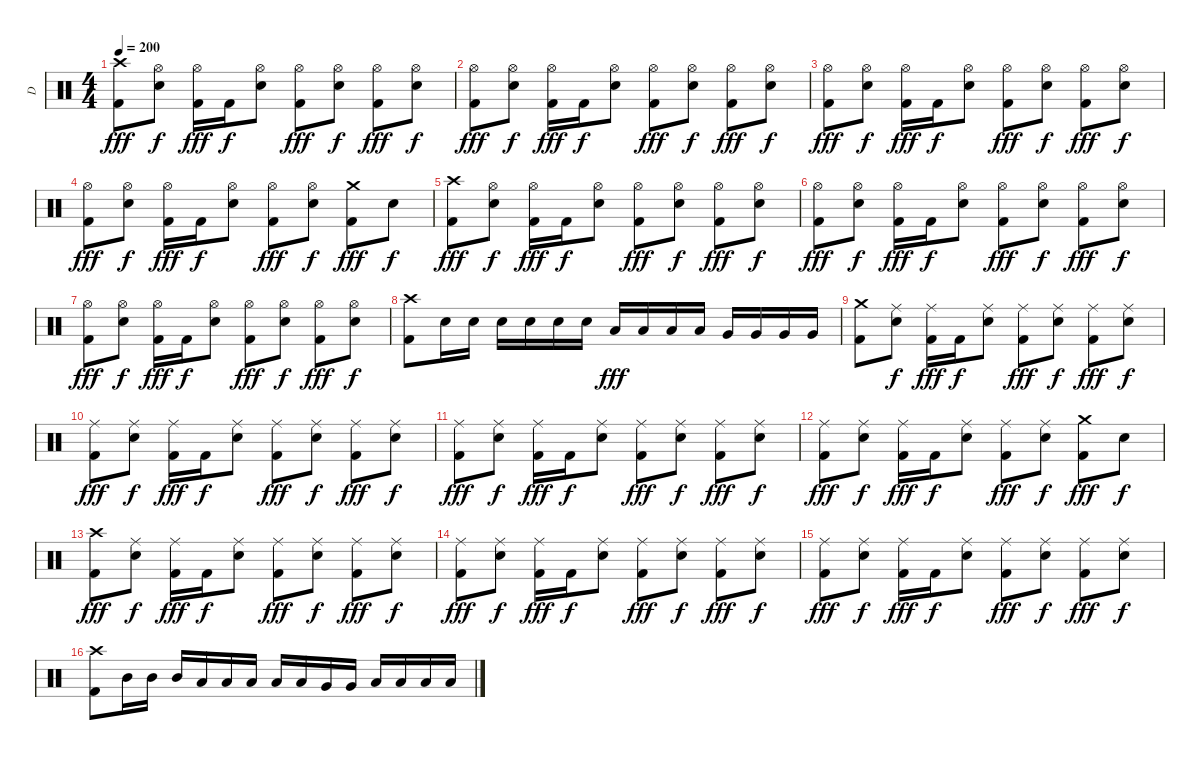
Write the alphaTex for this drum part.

\track ("D" "D") {instrument percussion}
\staff {score}
\articulation defaults
\ts (4 4)
\tempo 200
\clef neutral
\ks c
("Crash high (hit)" "Kick (hit) 2").8{dy fff} ("Hi-Hat (open)" "Electric Snare (hit)").8{dy f} ("Hi-Hat (open)" "Kick (hit) 2").16{dy fff} "Kick (hit) 2".16{dy f} ("Hi-Hat (open)" "Electric Snare (hit)").8 ("Hi-Hat (open)" "Kick (hit) 2").8{dy fff} ("Hi-Hat (open)" "Electric Snare (hit)").8{dy f} ("Hi-Hat (open)" "Kick (hit) 2").8{dy fff} ("Hi-Hat (open)" "Electric Snare (hit)").8{dy f} |
("Hi-Hat (open)" "Kick (hit) 2").8{dy fff} ("Hi-Hat (open)" "Electric Snare (hit)").8{dy f} ("Hi-Hat (open)" "Kick (hit) 2").16{dy fff} "Kick (hit) 2".16{dy f} ("Hi-Hat (open)" "Electric Snare (hit)").8 ("Hi-Hat (open)" "Kick (hit) 2").8{dy fff} ("Hi-Hat (open)" "Electric Snare (hit)").8{dy f} ("Hi-Hat (open)" "Kick (hit) 2").8{dy fff} ("Hi-Hat (open)" "Electric Snare (hit)").8{dy f} |
("Hi-Hat (open)" "Kick (hit) 2").8{dy fff} ("Hi-Hat (open)" "Electric Snare (hit)").8{dy f} ("Hi-Hat (open)" "Kick (hit) 2").16{dy fff} "Kick (hit) 2".16{dy f} ("Hi-Hat (open)" "Electric Snare (hit)").8 ("Hi-Hat (open)" "Kick (hit) 2").8{dy fff} ("Hi-Hat (open)" "Electric Snare (hit)").8{dy f} ("Hi-Hat (open)" "Kick (hit) 2").8{dy fff} ("Hi-Hat (open)" "Electric Snare (hit)").8{dy f} |
("Hi-Hat (open)" "Kick (hit) 2").8{dy fff} ("Hi-Hat (open)" "Electric Snare (hit)").8{dy f} ("Hi-Hat (open)" "Kick (hit) 2").16{dy fff} "Kick (hit) 2".16{dy f} ("Hi-Hat (open)" "Electric Snare (hit)").8 ("Hi-Hat (open)" "Kick (hit) 2").8{dy fff} ("Hi-Hat (open)" "Electric Snare (hit)").8{dy f} ("Crash medium (hit)" "Kick (hit) 2").8{dy fff} "Electric Snare (hit)".8{dy f} |
("Crash high (hit)" "Kick (hit) 2").8{dy fff} ("Hi-Hat (open)" "Electric Snare (hit)").8{dy f} ("Hi-Hat (open)" "Kick (hit) 2").16{dy fff} "Kick (hit) 2".16{dy f} ("Hi-Hat (open)" "Electric Snare (hit)").8 ("Hi-Hat (open)" "Kick (hit) 2").8{dy fff} ("Hi-Hat (open)" "Electric Snare (hit)").8{dy f} ("Hi-Hat (open)" "Kick (hit) 2").8{dy fff} ("Hi-Hat (open)" "Electric Snare (hit)").8{dy f} |
("Hi-Hat (open)" "Kick (hit) 2").8{dy fff} ("Hi-Hat (open)" "Electric Snare (hit)").8{dy f} ("Hi-Hat (open)" "Kick (hit) 2").16{dy fff} "Kick (hit) 2".16{dy f} ("Hi-Hat (open)" "Electric Snare (hit)").8 ("Hi-Hat (open)" "Kick (hit) 2").8{dy fff} ("Hi-Hat (open)" "Electric Snare (hit)").8{dy f} ("Hi-Hat (open)" "Kick (hit) 2").8{dy fff} ("Hi-Hat (open)" "Electric Snare (hit)").8{dy f} |
("Hi-Hat (open)" "Kick (hit) 2").8{dy fff} ("Hi-Hat (open)" "Electric Snare (hit)").8{dy f} ("Hi-Hat (open)" "Kick (hit) 2").16{dy fff} "Kick (hit) 2".16{dy f} ("Hi-Hat (open)" "Electric Snare (hit)").8 ("Hi-Hat (open)" "Kick (hit) 2").8{dy fff} ("Hi-Hat (open)" "Electric Snare (hit)").8{dy f} ("Hi-Hat (open)" "Kick (hit) 2").8{dy fff} ("Hi-Hat (open)" "Electric Snare (hit)").8{dy f} |
("Crash high (hit)" "Kick (hit) 2").8 "Electric Snare (hit)".16 "Electric Snare (hit)".16 "Electric Snare (hit)".16 "Electric Snare (hit)".16 "Electric Snare (hit)".16 "Electric Snare (hit)".16 "Low Tom (hit)".16{dy fff} "Low Tom (hit)".16 "Low Tom (hit)".16 "Low Tom (hit)".16 "Very Low Tom (hit)".16 "Very Low Tom (hit)".16 "Very Low Tom (hit)".16 "Very Low Tom (hit)".16 |
("Crash medium (hit)" "Kick (hit) 2").8 ("Ride (middle)" "Electric Snare (hit)").8{dy f} ("Ride (middle)" "Kick (hit) 2").16{dy fff} "Kick (hit) 2".16{dy f} ("Ride (middle)" "Electric Snare (hit)").8 ("Ride (middle)" "Kick (hit) 2").8{dy fff} ("Ride (middle)" "Electric Snare (hit)").8{dy f} ("Ride (middle)" "Kick (hit) 2").8{dy fff} ("Ride (middle)" "Electric Snare (hit)").8{dy f} |
("Ride (middle)" "Kick (hit) 2").8{dy fff} ("Ride (middle)" "Electric Snare (hit)").8{dy f} ("Ride (middle)" "Kick (hit) 2").16{dy fff} "Kick (hit) 2".16{dy f} ("Ride (middle)" "Electric Snare (hit)").8 ("Ride (middle)" "Kick (hit) 2").8{dy fff} ("Ride (middle)" "Electric Snare (hit)").8{dy f} ("Ride (middle)" "Kick (hit) 2").8{dy fff} ("Ride (middle)" "Electric Snare (hit)").8{dy f} |
("Ride (middle)" "Kick (hit) 2").8{dy fff} ("Ride (middle)" "Electric Snare (hit)").8{dy f} ("Ride (middle)" "Kick (hit) 2").16{dy fff} "Kick (hit) 2".16{dy f} ("Ride (middle)" "Electric Snare (hit)").8 ("Ride (middle)" "Kick (hit) 2").8{dy fff} ("Ride (middle)" "Electric Snare (hit)").8{dy f} ("Ride (middle)" "Kick (hit) 2").8{dy fff} ("Ride (middle)" "Electric Snare (hit)").8{dy f} |
("Ride (middle)" "Kick (hit) 2").8{dy fff} ("Ride (middle)" "Electric Snare (hit)").8{dy f} ("Ride (middle)" "Kick (hit) 2").16{dy fff} "Kick (hit) 2".16{dy f} ("Ride (middle)" "Electric Snare (hit)").8 ("Ride (middle)" "Kick (hit) 2").8{dy fff} ("Ride (middle)" "Electric Snare (hit)").8{dy f} ("Crash medium (hit)" "Kick (hit) 2").8{dy fff} "Electric Snare (hit)".8{dy f} |
("Crash high (hit)" "Kick (hit) 2").8{dy fff} ("Ride (middle)" "Electric Snare (hit)").8{dy f} ("Ride (middle)" "Kick (hit) 2").16{dy fff} "Kick (hit) 2".16{dy f} ("Ride (middle)" "Electric Snare (hit)").8 ("Ride (middle)" "Kick (hit) 2").8{dy fff} ("Ride (middle)" "Electric Snare (hit)").8{dy f} ("Ride (middle)" "Kick (hit) 2").8{dy fff} ("Ride (middle)" "Electric Snare (hit)").8{dy f} |
("Ride (middle)" "Kick (hit) 2").8{dy fff} ("Ride (middle)" "Electric Snare (hit)").8{dy f} ("Ride (middle)" "Kick (hit) 2").16{dy fff} "Kick (hit) 2".16{dy f} ("Ride (middle)" "Electric Snare (hit)").8 ("Ride (middle)" "Kick (hit) 2").8{dy fff} ("Ride (middle)" "Electric Snare (hit)").8{dy f} ("Ride (middle)" "Kick (hit) 2").8{dy fff} ("Ride (middle)" "Electric Snare (hit)").8{dy f} |
("Ride (middle)" "Kick (hit) 2").8{dy fff} ("Ride (middle)" "Electric Snare (hit)").8{dy f} ("Ride (middle)" "Kick (hit) 2").16{dy fff} "Kick (hit) 2".16{dy f} ("Ride (middle)" "Electric Snare (hit)").8 ("Ride (middle)" "Kick (hit) 2").8{dy fff} ("Ride (middle)" "Electric Snare (hit)").8{dy f} ("Ride (middle)" "Kick (hit) 2").8{dy fff} ("Ride (middle)" "Electric Snare (hit)").8{dy f} |
("Crash high (hit)" "Kick (hit) 2").8 "Mid Tom (hit)".16 "Mid Tom (hit)".16 "Mid Tom (hit)".16 "Low Tom (hit)".16 "Low Tom (hit)".16 "Low Tom (hit)".16 "Low Tom (hit)".16 "Low Tom (hit)".16 "Very Low Tom (hit)".16 "Very Low Tom (hit)".16 "Low Floor Tom (hit)".16 "Low Floor Tom (hit)".16 "Low Floor Tom (hit)".16 "Low Floor Tom (hit)".16
